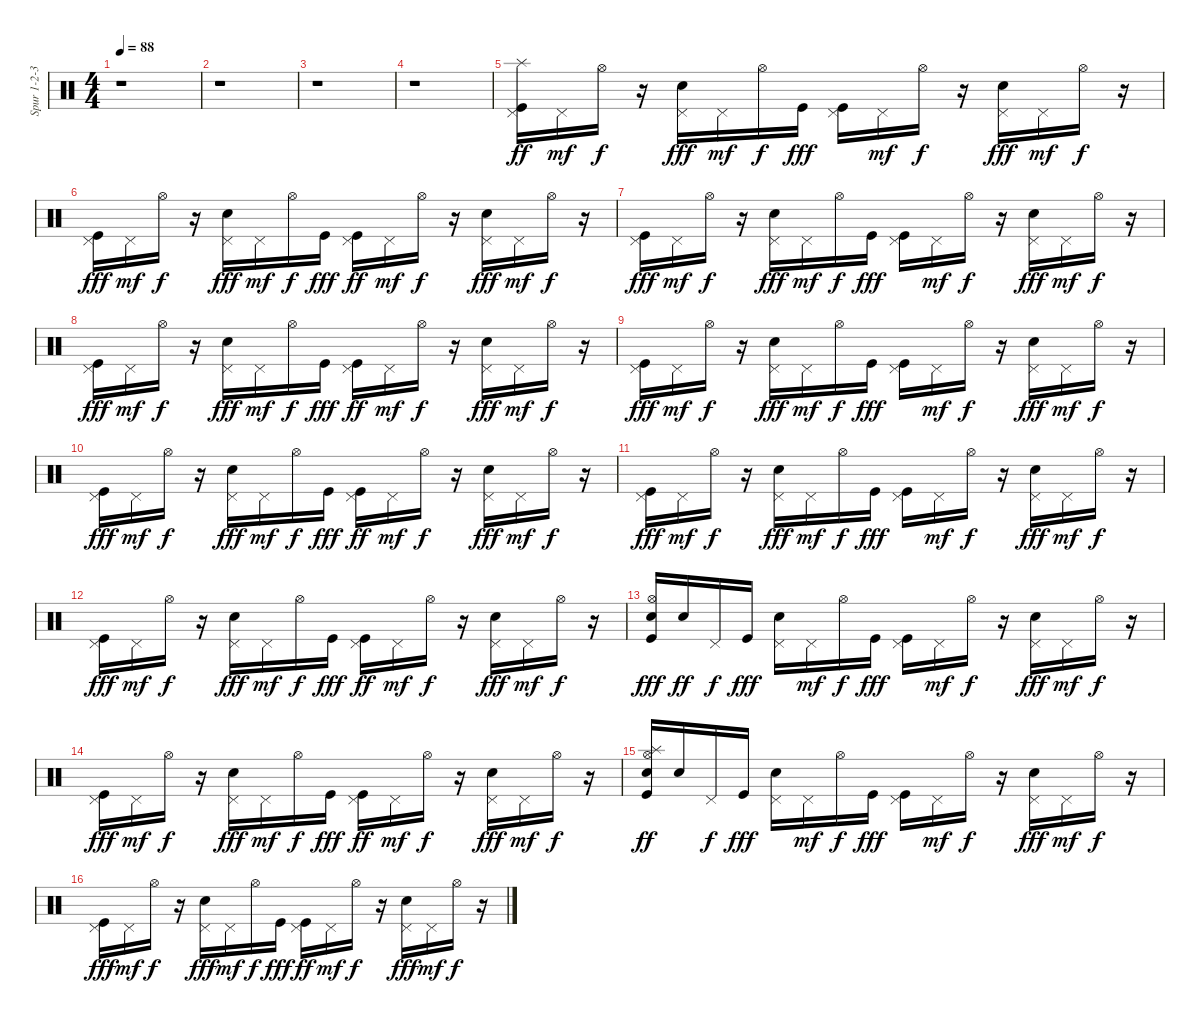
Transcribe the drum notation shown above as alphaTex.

\track ("Spur 1-2-3-4" "Spur 1-2-3") {instrument percussion}
\staff {score}
\articulation defaults
\ts (4 4)
\tempo 88
\clef neutral
\ks c
r.1{dy ff} |
r.1 |
r.1 |
r.1 |
("Pedal Hi-Hat (hit)" "Kick (hit)" "Splash (hit)").16 "Pedal Hi-Hat (hit)".16{dy mf} "Hi-Hat (open)".16{dy f} r.16 ("Pedal Hi-Hat (hit)" "Snare (hit) 2").16{dy fff} "Pedal Hi-Hat (hit)".16{dy mf} "Hi-Hat (open)".16{dy f} "Kick (hit)".16{dy fff} ("Pedal Hi-Hat (hit)" "Kick (hit)").16 "Pedal Hi-Hat (hit)".16{dy mf} "Hi-Hat (open)".16{dy f} r.16 ("Pedal Hi-Hat (hit)" "Snare (hit) 2").16{dy fff} "Pedal Hi-Hat (hit)".16{dy mf} "Hi-Hat (open)".16{dy f} r.16 |
("Pedal Hi-Hat (hit)" "Kick (hit)").16{dy fff} "Pedal Hi-Hat (hit)".16{dy mf} "Hi-Hat (open)".16{dy f} r.16 ("Pedal Hi-Hat (hit)" "Snare (hit) 2").16{dy fff} "Pedal Hi-Hat (hit)".16{dy mf} "Hi-Hat (open)".16{dy f} "Kick (hit)".16{dy fff} ("Pedal Hi-Hat (hit)" "Kick (hit)").16{dy ff} "Pedal Hi-Hat (hit)".16{dy mf} "Hi-Hat (open)".16{dy f} r.16 ("Pedal Hi-Hat (hit)" "Snare (hit) 2").16{dy fff} "Pedal Hi-Hat (hit)".16{dy mf} "Hi-Hat (open)".16{dy f} r.16 |
("Pedal Hi-Hat (hit)" "Kick (hit)").16{dy fff} "Pedal Hi-Hat (hit)".16{dy mf} "Hi-Hat (open)".16{dy f} r.16 ("Pedal Hi-Hat (hit)" "Snare (hit) 2").16{dy fff} "Pedal Hi-Hat (hit)".16{dy mf} "Hi-Hat (open)".16{dy f} "Kick (hit)".16{dy fff} ("Pedal Hi-Hat (hit)" "Kick (hit)").16 "Pedal Hi-Hat (hit)".16{dy mf} "Hi-Hat (open)".16{dy f} r.16 ("Pedal Hi-Hat (hit)" "Snare (hit) 2").16{dy fff} "Pedal Hi-Hat (hit)".16{dy mf} "Hi-Hat (open)".16{dy f} r.16 |
("Pedal Hi-Hat (hit)" "Kick (hit)").16{dy fff} "Pedal Hi-Hat (hit)".16{dy mf} "Hi-Hat (open)".16{dy f} r.16 ("Pedal Hi-Hat (hit)" "Snare (hit) 2").16{dy fff} "Pedal Hi-Hat (hit)".16{dy mf} "Hi-Hat (open)".16{dy f} "Kick (hit)".16{dy fff} ("Pedal Hi-Hat (hit)" "Kick (hit)").16{dy ff} "Pedal Hi-Hat (hit)".16{dy mf} "Hi-Hat (open)".16{dy f} r.16 ("Pedal Hi-Hat (hit)" "Snare (hit) 2").16{dy fff} "Pedal Hi-Hat (hit)".16{dy mf} "Hi-Hat (open)".16{dy f} r.16 |
("Pedal Hi-Hat (hit)" "Kick (hit)").16{dy fff} "Pedal Hi-Hat (hit)".16{dy mf} "Hi-Hat (open)".16{dy f} r.16 ("Pedal Hi-Hat (hit)" "Snare (hit) 2").16{dy fff} "Pedal Hi-Hat (hit)".16{dy mf} "Hi-Hat (open)".16{dy f} "Kick (hit)".16{dy fff} ("Pedal Hi-Hat (hit)" "Kick (hit)").16 "Pedal Hi-Hat (hit)".16{dy mf} "Hi-Hat (open)".16{dy f} r.16 ("Pedal Hi-Hat (hit)" "Snare (hit) 2").16{dy fff} "Pedal Hi-Hat (hit)".16{dy mf} "Hi-Hat (open)".16{dy f} r.16 |
("Pedal Hi-Hat (hit)" "Kick (hit)").16{dy fff} "Pedal Hi-Hat (hit)".16{dy mf} "Hi-Hat (open)".16{dy f} r.16 ("Pedal Hi-Hat (hit)" "Snare (hit) 2").16{dy fff} "Pedal Hi-Hat (hit)".16{dy mf} "Hi-Hat (open)".16{dy f} "Kick (hit)".16{dy fff} ("Pedal Hi-Hat (hit)" "Kick (hit)").16{dy ff} "Pedal Hi-Hat (hit)".16{dy mf} "Hi-Hat (open)".16{dy f} r.16 ("Pedal Hi-Hat (hit)" "Snare (hit) 2").16{dy fff} "Pedal Hi-Hat (hit)".16{dy mf} "Hi-Hat (open)".16{dy f} r.16 |
("Pedal Hi-Hat (hit)" "Kick (hit)").16{dy fff} "Pedal Hi-Hat (hit)".16{dy mf} "Hi-Hat (open)".16{dy f} r.16 ("Pedal Hi-Hat (hit)" "Snare (hit) 2").16{dy fff} "Pedal Hi-Hat (hit)".16{dy mf} "Hi-Hat (open)".16{dy f} "Kick (hit)".16{dy fff} ("Pedal Hi-Hat (hit)" "Kick (hit)").16 "Pedal Hi-Hat (hit)".16{dy mf} "Hi-Hat (open)".16{dy f} r.16 ("Pedal Hi-Hat (hit)" "Snare (hit) 2").16{dy fff} "Pedal Hi-Hat (hit)".16{dy mf} "Hi-Hat (open)".16{dy f} r.16 |
("Pedal Hi-Hat (hit)" "Kick (hit)").16{dy fff} "Pedal Hi-Hat (hit)".16{dy mf} "Hi-Hat (open)".16{dy f} r.16 ("Pedal Hi-Hat (hit)" "Snare (hit) 2").16{dy fff} "Pedal Hi-Hat (hit)".16{dy mf} "Hi-Hat (open)".16{dy f} "Kick (hit)".16{dy fff} ("Pedal Hi-Hat (hit)" "Kick (hit)").16{dy ff} "Pedal Hi-Hat (hit)".16{dy mf} "Hi-Hat (open)".16{dy f} r.16 ("Pedal Hi-Hat (hit)" "Snare (hit) 2").16{dy fff} "Pedal Hi-Hat (hit)".16{dy mf} "Hi-Hat (open)".16{dy f} r.16 |
("Hi-Hat (open)" "Snare (hit) 2" "Kick (hit)").16{dy fff} "Snare (hit) 2".16{dy ff} "Pedal Hi-Hat (hit)".16{dy f} "Kick (hit)".16{dy fff} ("Pedal Hi-Hat (hit)" "Snare (hit) 2").16 "Pedal Hi-Hat (hit)".16{dy mf} "Hi-Hat (open)".16{dy f} "Kick (hit)".16{dy fff} ("Pedal Hi-Hat (hit)" "Kick (hit)").16 "Pedal Hi-Hat (hit)".16{dy mf} "Hi-Hat (open)".16{dy f} r.16 ("Pedal Hi-Hat (hit)" "Snare (hit) 2").16{dy fff} "Pedal Hi-Hat (hit)".16{dy mf} "Hi-Hat (open)".16{dy f} r.16 |
("Pedal Hi-Hat (hit)" "Kick (hit)").16{dy fff} "Pedal Hi-Hat (hit)".16{dy mf} "Hi-Hat (open)".16{dy f} r.16 ("Pedal Hi-Hat (hit)" "Snare (hit) 2").16{dy fff} "Pedal Hi-Hat (hit)".16{dy mf} "Hi-Hat (open)".16{dy f} "Kick (hit)".16{dy fff} ("Pedal Hi-Hat (hit)" "Kick (hit)").16{dy ff} "Pedal Hi-Hat (hit)".16{dy mf} "Hi-Hat (open)".16{dy f} r.16 ("Pedal Hi-Hat (hit)" "Snare (hit) 2").16{dy fff} "Pedal Hi-Hat (hit)".16{dy mf} "Hi-Hat (open)".16{dy f} r.16 |
("Hi-Hat (open)" "Snare (hit) 2" "Kick (hit)" "Splash (hit)").16{dy ff} "Snare (hit) 2".16 "Pedal Hi-Hat (hit)".16{dy f} "Kick (hit)".16{dy fff} ("Pedal Hi-Hat (hit)" "Snare (hit) 2").16 "Pedal Hi-Hat (hit)".16{dy mf} "Hi-Hat (open)".16{dy f} "Kick (hit)".16{dy fff} ("Pedal Hi-Hat (hit)" "Kick (hit)").16 "Pedal Hi-Hat (hit)".16{dy mf} "Hi-Hat (open)".16{dy f} r.16 ("Pedal Hi-Hat (hit)" "Snare (hit) 2").16{dy fff} "Pedal Hi-Hat (hit)".16{dy mf} "Hi-Hat (open)".16{dy f} r.16 |
("Pedal Hi-Hat (hit)" "Kick (hit)").16{dy fff} "Pedal Hi-Hat (hit)".16{dy mf} "Hi-Hat (open)".16{dy f} r.16 ("Pedal Hi-Hat (hit)" "Snare (hit) 2").16{dy fff} "Pedal Hi-Hat (hit)".16{dy mf} "Hi-Hat (open)".16{dy f} "Kick (hit)".16{dy fff} ("Pedal Hi-Hat (hit)" "Kick (hit)").16{dy ff} "Pedal Hi-Hat (hit)".16{dy mf} "Hi-Hat (open)".16{dy f} r.16 ("Pedal Hi-Hat (hit)" "Snare (hit) 2").16{dy fff} "Pedal Hi-Hat (hit)".16{dy mf} "Hi-Hat (open)".16{dy f} r.16
